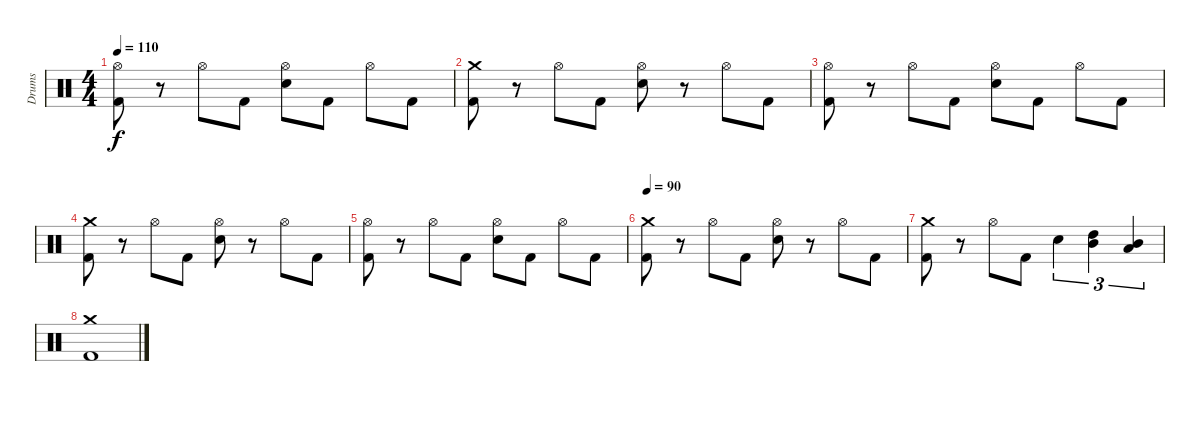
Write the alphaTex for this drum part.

\track ("Drums" "Drums") {instrument percussion}
\staff {score}
\articulation defaults
\ts (4 4)
\tempo 110
\clef neutral
\ks c
("Hi-Hat (open)" "Kick (hit) 2").8{dy f} r.8 "Hi-Hat (open)".8 "Kick (hit) 2".8 ("Hi-Hat (open)" "Snare (hit) 2").8 "Kick (hit) 2".8 "Hi-Hat (open)".8 "Kick (hit) 2".8 |
("Crash medium (hit)" "Kick (hit) 2").8 r.8 "Hi-Hat (open)".8 "Kick (hit) 2".8 ("Hi-Hat (open)" "Snare (hit) 2").8 r.8 "Hi-Hat (open)".8 "Kick (hit) 2".8 |
("Hi-Hat (open)" "Kick (hit) 2").8 r.8 "Hi-Hat (open)".8 "Kick (hit) 2".8 ("Hi-Hat (open)" "Snare (hit) 2").8 "Kick (hit) 2".8 "Hi-Hat (open)".8 "Kick (hit) 2".8 |
("Crash medium (hit)" "Kick (hit) 2").8 r.8 "Hi-Hat (open)".8 "Kick (hit) 2".8 ("Hi-Hat (open)" "Snare (hit) 2").8 r.8 "Hi-Hat (open)".8 "Kick (hit) 2".8 |
("Hi-Hat (open)" "Kick (hit) 2").8 r.8 "Hi-Hat (open)".8 "Kick (hit) 2".8 ("Hi-Hat (open)" "Snare (hit) 2").8 "Kick (hit) 2".8 "Hi-Hat (open)".8 "Kick (hit) 2".8 |
\tempo 90
("Crash medium (hit)" "Kick (hit) 2").8 r.8 "Hi-Hat (open)".8 "Kick (hit) 2".8 ("Hi-Hat (open)" "Snare (hit) 2").8 r.8 "Hi-Hat (open)".8 "Kick (hit) 2".8 |
("Crash medium (hit)" "Kick (hit) 2").8 r.8 "Hi-Hat (open)".8 "Kick (hit) 2".8 "Snare (hit) 2".4{tu (3 2)} ("High Tom (hit)" "Mid Tom (hit)").4{tu (3 2)} ("Mid Tom (hit)" "Low Tom (hit)").4{tu (3 2)} |
("Crash medium (hit)" "Kick (hit) 2").1
